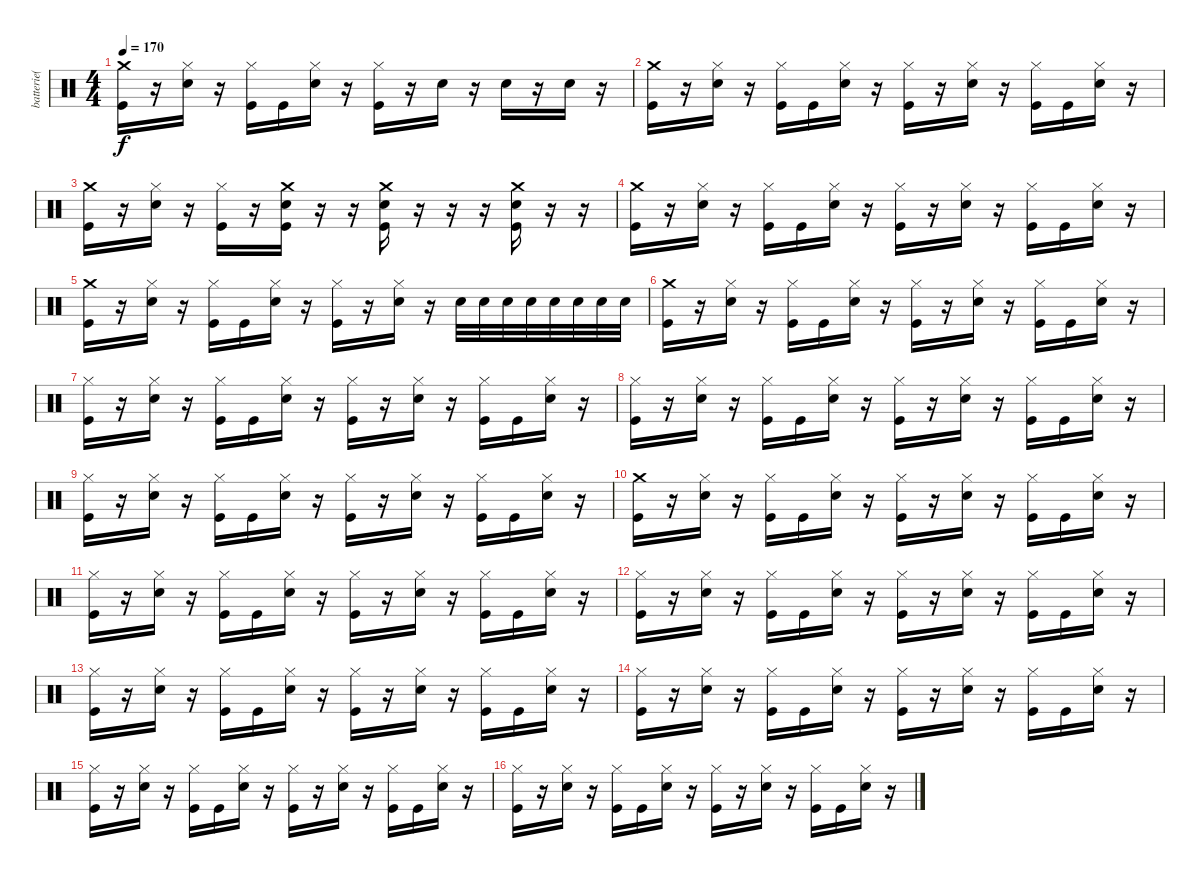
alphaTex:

\track ("batterie( Yureesh )" "batterie( ") {instrument percussion}
\staff {score}
\articulation defaults
\ts (4 4)
\tempo 170
\clef neutral
\ks c
("Crash medium (hit)" "Kick (hit)").16{dy f} r.16 ("Hi-Hat (closed)" "Snare (hit) 2").16 r.16 ("Hi-Hat (closed)" "Kick (hit)").16 "Kick (hit)".16 ("Hi-Hat (closed)" "Snare (hit) 2").16 r.16 ("Hi-Hat (closed)" "Kick (hit)").16 r.16 "Snare (hit) 2".16 r.16 "Snare (hit) 2".16 r.16 "Snare (hit) 2".16 r.16 |
("Crash medium (hit)" "Kick (hit)").16 r.16 ("Hi-Hat (closed)" "Snare (hit) 2").16 r.16 ("Hi-Hat (closed)" "Kick (hit)").16 "Kick (hit)".16 ("Hi-Hat (closed)" "Snare (hit) 2").16 r.16 ("Hi-Hat (closed)" "Kick (hit)").16 r.16 ("Hi-Hat (closed)" "Snare (hit) 2").16 r.16 ("Hi-Hat (closed)" "Kick (hit)").16 "Kick (hit)".16 ("Hi-Hat (closed)" "Snare (hit) 2").16 r.16 |
("Crash medium (hit)" "Kick (hit)").16 r.16 ("Hi-Hat (closed)" "Snare (hit) 2").16 r.16 ("Hi-Hat (closed)" "Kick (hit)").16 r.16 ("Crash medium (hit)" "Snare (hit) 2" "Kick (hit)").16 r.16 r.16 ("Crash medium (hit)" "Snare (hit) 2" "Kick (hit)").16 r.16 r.16 r.16 ("Crash medium (hit)" "Snare (hit) 2" "Kick (hit)").16 r.16 r.16 |
("Crash medium (hit)" "Kick (hit)").16 r.16 ("Hi-Hat (closed)" "Snare (hit) 2").16 r.16 ("Hi-Hat (closed)" "Kick (hit)").16 "Kick (hit)".16 ("Hi-Hat (closed)" "Snare (hit) 2").16 r.16 ("Hi-Hat (closed)" "Kick (hit)").16 r.16 ("Hi-Hat (closed)" "Snare (hit) 2").16 r.16 ("Hi-Hat (closed)" "Kick (hit)").16 "Kick (hit)".16 ("Hi-Hat (closed)" "Snare (hit) 2").16 r.16 |
("Crash medium (hit)" "Kick (hit)").16 r.16 ("Hi-Hat (closed)" "Snare (hit) 2").16 r.16 ("Hi-Hat (closed)" "Kick (hit)").16 "Kick (hit)".16 ("Hi-Hat (closed)" "Snare (hit) 2").16 r.16 ("Hi-Hat (closed)" "Kick (hit)").16 r.16 ("Hi-Hat (closed)" "Snare (hit) 2").16 r.16 "Snare (hit) 2".32 "Snare (hit) 2".32 "Snare (hit) 2".32 "Snare (hit) 2".32 "Snare (hit) 2".32 "Snare (hit) 2".32 "Snare (hit) 2".32 "Snare (hit) 2".32 |
("Crash medium (hit)" "Kick (hit)").16 r.16 ("Hi-Hat (closed)" "Snare (hit) 2").16 r.16 ("Hi-Hat (closed)" "Kick (hit)").16 "Kick (hit)".16 ("Hi-Hat (closed)" "Snare (hit) 2").16 r.16 ("Hi-Hat (closed)" "Kick (hit)").16 r.16 ("Hi-Hat (closed)" "Snare (hit) 2").16 r.16 ("Hi-Hat (closed)" "Kick (hit)").16 "Kick (hit)".16 ("Hi-Hat (closed)" "Snare (hit) 2").16 r.16 |
("Hi-Hat (closed)" "Kick (hit)").16 r.16 ("Hi-Hat (closed)" "Snare (hit) 2").16 r.16 ("Hi-Hat (closed)" "Kick (hit)").16 "Kick (hit)".16 ("Hi-Hat (closed)" "Snare (hit) 2").16 r.16 ("Hi-Hat (closed)" "Kick (hit)").16 r.16 ("Hi-Hat (closed)" "Snare (hit) 2").16 r.16 ("Hi-Hat (closed)" "Kick (hit)").16 "Kick (hit)".16 ("Hi-Hat (closed)" "Snare (hit) 2").16 r.16 |
("Hi-Hat (closed)" "Kick (hit)").16 r.16 ("Hi-Hat (closed)" "Snare (hit) 2").16 r.16 ("Hi-Hat (closed)" "Kick (hit)").16 "Kick (hit)".16 ("Hi-Hat (closed)" "Snare (hit) 2").16 r.16 ("Hi-Hat (closed)" "Kick (hit)").16 r.16 ("Hi-Hat (closed)" "Snare (hit) 2").16 r.16 ("Hi-Hat (closed)" "Kick (hit)").16 "Kick (hit)".16 ("Hi-Hat (closed)" "Snare (hit) 2").16 r.16 |
("Hi-Hat (closed)" "Kick (hit)").16 r.16 ("Hi-Hat (closed)" "Snare (hit) 2").16 r.16 ("Hi-Hat (closed)" "Kick (hit)").16 "Kick (hit)".16 ("Hi-Hat (closed)" "Snare (hit) 2").16 r.16 ("Hi-Hat (closed)" "Kick (hit)").16 r.16 ("Hi-Hat (closed)" "Snare (hit) 2").16 r.16 ("Hi-Hat (closed)" "Kick (hit)").16 "Kick (hit)".16 ("Hi-Hat (closed)" "Snare (hit) 2").16 r.16 |
("Crash medium (hit)" "Kick (hit)").16 r.16 ("Hi-Hat (closed)" "Snare (hit) 2").16 r.16 ("Hi-Hat (closed)" "Kick (hit)").16 "Kick (hit)".16 ("Hi-Hat (closed)" "Snare (hit) 2").16 r.16 ("Hi-Hat (closed)" "Kick (hit)").16 r.16 ("Hi-Hat (closed)" "Snare (hit) 2").16 r.16 ("Hi-Hat (closed)" "Kick (hit)").16 "Kick (hit)".16 ("Hi-Hat (closed)" "Snare (hit) 2").16 r.16 |
("Hi-Hat (closed)" "Kick (hit)").16 r.16 ("Hi-Hat (closed)" "Snare (hit) 2").16 r.16 ("Hi-Hat (closed)" "Kick (hit)").16 "Kick (hit)".16 ("Hi-Hat (closed)" "Snare (hit) 2").16 r.16 ("Hi-Hat (closed)" "Kick (hit)").16 r.16 ("Hi-Hat (closed)" "Snare (hit) 2").16 r.16 ("Hi-Hat (closed)" "Kick (hit)").16 "Kick (hit)".16 ("Hi-Hat (closed)" "Snare (hit) 2").16 r.16 |
("Hi-Hat (closed)" "Kick (hit)").16 r.16 ("Hi-Hat (closed)" "Snare (hit) 2").16 r.16 ("Hi-Hat (closed)" "Kick (hit)").16 "Kick (hit)".16 ("Hi-Hat (closed)" "Snare (hit) 2").16 r.16 ("Hi-Hat (closed)" "Kick (hit)").16 r.16 ("Hi-Hat (closed)" "Snare (hit) 2").16 r.16 ("Hi-Hat (closed)" "Kick (hit)").16 "Kick (hit)".16 ("Hi-Hat (closed)" "Snare (hit) 2").16 r.16 |
("Hi-Hat (closed)" "Kick (hit)").16 r.16 ("Hi-Hat (closed)" "Snare (hit) 2").16 r.16 ("Hi-Hat (closed)" "Kick (hit)").16 "Kick (hit)".16 ("Hi-Hat (closed)" "Snare (hit) 2").16 r.16 ("Hi-Hat (closed)" "Kick (hit)").16 r.16 ("Hi-Hat (closed)" "Snare (hit) 2").16 r.16 ("Hi-Hat (closed)" "Kick (hit)").16 "Kick (hit)".16 ("Hi-Hat (closed)" "Snare (hit) 2").16 r.16 |
("Hi-Hat (closed)" "Kick (hit)").16 r.16 ("Hi-Hat (closed)" "Snare (hit) 2").16 r.16 ("Hi-Hat (closed)" "Kick (hit)").16 "Kick (hit)".16 ("Hi-Hat (closed)" "Snare (hit) 2").16 r.16 ("Hi-Hat (closed)" "Kick (hit)").16 r.16 ("Hi-Hat (closed)" "Snare (hit) 2").16 r.16 ("Hi-Hat (closed)" "Kick (hit)").16 "Kick (hit)".16 ("Hi-Hat (closed)" "Snare (hit) 2").16 r.16 |
("Hi-Hat (closed)" "Kick (hit)").16 r.16 ("Hi-Hat (closed)" "Snare (hit) 2").16 r.16 ("Hi-Hat (closed)" "Kick (hit)").16 "Kick (hit)".16 ("Hi-Hat (closed)" "Snare (hit) 2").16 r.16 ("Hi-Hat (closed)" "Kick (hit)").16 r.16 ("Hi-Hat (closed)" "Snare (hit) 2").16 r.16 ("Hi-Hat (closed)" "Kick (hit)").16 "Kick (hit)".16 ("Hi-Hat (closed)" "Snare (hit) 2").16 r.16 |
("Hi-Hat (closed)" "Kick (hit)").16 r.16 ("Hi-Hat (closed)" "Snare (hit) 2").16 r.16 ("Hi-Hat (closed)" "Kick (hit)").16 "Kick (hit)".16 ("Hi-Hat (closed)" "Snare (hit) 2").16 r.16 ("Hi-Hat (closed)" "Kick (hit)").16 r.16 ("Hi-Hat (closed)" "Snare (hit) 2").16 r.16 ("Hi-Hat (closed)" "Kick (hit)").16 "Kick (hit)".16 ("Hi-Hat (closed)" "Snare (hit) 2").16 r.16
